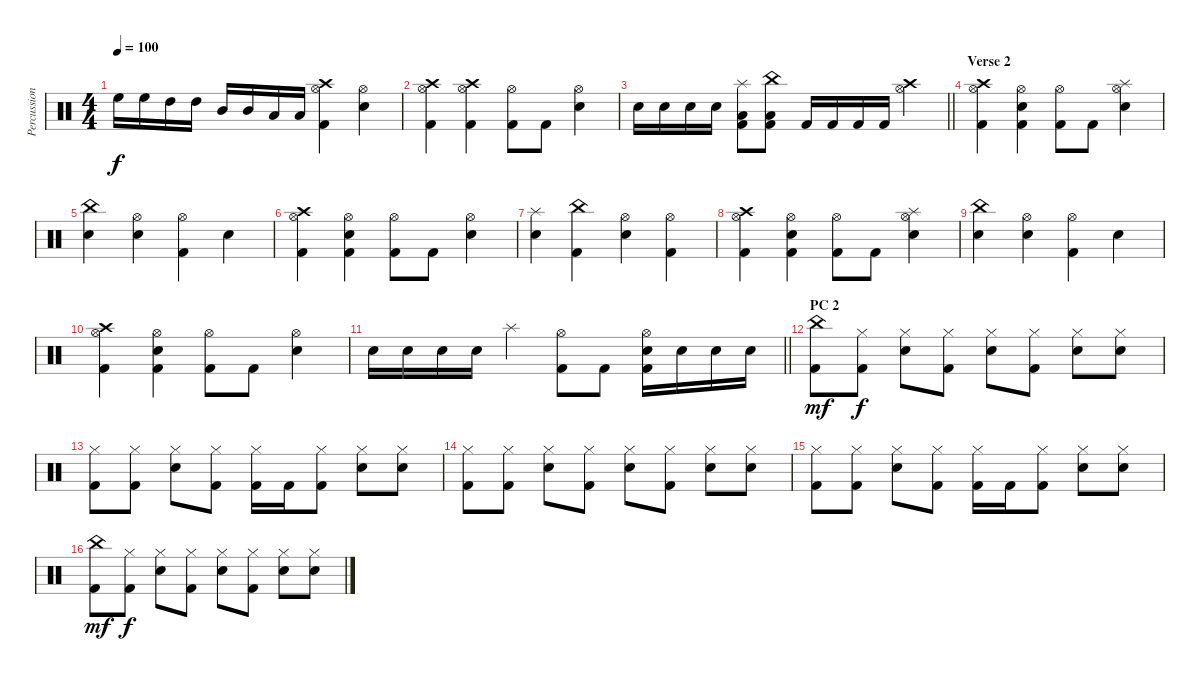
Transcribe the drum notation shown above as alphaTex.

\track ("Percussion" "Percussion") {instrument percussion}
\staff {score}
\articulation defaults
\ts (4 4)
\tempo 100
\clef neutral
\ks c "High Floor Tom (hit)".16{dy f} "High Floor Tom (hit)".16 "High Tom (hit)".16 "High Tom (hit)".16 "Mid Tom (hit)".16 "Mid Tom (hit)".16 "Low Tom (hit)".16 "Low Tom (hit)".16
("Crash high (hit)" "Hi-Hat (open)" "Kick (hit) 2").4 ("Hi-Hat (open)" "Snare (hit) 2").4 |
("Crash high (hit)" "Hi-Hat (open)" "Kick (hit) 2").4 ("Crash high (hit)" "Hi-Hat (open)" "Kick (hit) 2").4 ("Hi-Hat (open)" "Kick (hit) 2").8 "Kick (hit) 2".8 ("Hi-Hat (open)" "Snare (hit) 2").4 |
\barLineRight lightlight "Snare (hit) 2".16 "Snare (hit) 2".16 "Snare (hit) 2".16 "Snare (hit) 2".16
("Splash (hit)" "Low Floor Tom (hit)" "Kick (hit) 2").8 ("China (hit)" "Low Floor Tom (hit)" "Kick (hit) 2").8 "Kick (hit) 2".16 "Kick (hit) 2".16 "Kick (hit) 2".16 "Kick (hit) 2".16 ("Crash high (hit)" "Hi-Hat (open)").4 |
\section ("" "Verse 2")
("Crash high (hit)" "Hi-Hat (open)" "Kick (hit) 2").4 ("Hi-Hat (open)" "Snare (hit) 2" "Kick (hit) 2").4 ("Hi-Hat (open)" "Kick (hit) 2").8 "Kick (hit) 2".8 ("Splash (hit)" "Hi-Hat (open)" "Snare (hit) 2").4 |
("China (hit)" "Snare (hit) 2").4 ("Hi-Hat (open)" "Snare (hit) 2").4 ("Hi-Hat (open)" "Kick (hit) 2").4 "Snare (hit) 2".4 |
("Crash high (hit)" "Hi-Hat (open)" "Kick (hit) 2").4 ("Hi-Hat (open)" "Snare (hit) 2" "Kick (hit) 2").4 ("Hi-Hat (open)" "Kick (hit) 2").8 "Kick (hit) 2".8 ("Hi-Hat (open)" "Snare (hit) 2").4 |
("Splash (hit)" "Snare (hit) 2").4 ("China (hit)" "Kick (hit) 2").4 ("Hi-Hat (open)" "Snare (hit) 2").4 ("Hi-Hat (open)" "Kick (hit) 2").4 |
("Crash high (hit)" "Hi-Hat (open)" "Kick (hit) 2").4 ("Hi-Hat (open)" "Snare (hit) 2" "Kick (hit) 2").4 ("Hi-Hat (open)" "Kick (hit) 2").8 "Kick (hit) 2".8 ("Splash (hit)" "Hi-Hat (open)" "Snare (hit) 2").4 |
("China (hit)" "Snare (hit) 2").4 ("Hi-Hat (open)" "Snare (hit) 2").4 ("Hi-Hat (open)" "Kick (hit) 2").4 "Snare (hit) 2".4 |
("Crash high (hit)" "Hi-Hat (open)" "Kick (hit) 2").4 ("Hi-Hat (open)" "Snare (hit) 2" "Kick (hit) 2").4 ("Hi-Hat (open)" "Kick (hit) 2").8 "Kick (hit) 2".8 ("Hi-Hat (open)" "Snare (hit) 2").4 |
\barLineRight lightlight "Snare (hit) 2".16 "Snare (hit) 2".16 "Snare (hit) 2".16 "Snare (hit) 2".16 "Splash (hit)".4
("Hi-Hat (open)" "Kick (hit) 2").8 "Kick (hit) 2".8 ("Hi-Hat (open)" "Snare (hit) 2" "Kick (hit) 2").16 "Snare (hit) 2".16 "Snare (hit) 2".16 "Snare (hit) 2".16 |
\section ("" "PC 2")
("China (hit)" "Kick (hit) 2").8{dy mf} ("Hi-Hat (closed)" "Kick (hit) 2").8{dy f} ("Hi-Hat (closed)" "Snare (hit) 2").8 ("Hi-Hat (closed)" "Kick (hit) 2").8 ("Hi-Hat (closed)" "Snare (hit) 2").8 ("Hi-Hat (closed)" "Kick (hit) 2").8 ("Hi-Hat (closed)" "Snare (hit) 2").8 ("Hi-Hat (closed)" "Snare (hit) 2").8 |
("Hi-Hat (closed)" "Kick (hit) 2").8 ("Hi-Hat (closed)" "Kick (hit) 2").8 ("Hi-Hat (closed)" "Snare (hit) 2").8 ("Hi-Hat (closed)" "Kick (hit) 2").8 ("Hi-Hat (closed)" "Kick (hit) 2").16 "Kick (hit) 2".16 ("Hi-Hat (closed)" "Kick (hit) 2").8 ("Hi-Hat (closed)" "Snare (hit) 2").8 ("Hi-Hat (closed)" "Snare (hit) 2").8 |
("Hi-Hat (closed)" "Kick (hit) 2").8 ("Hi-Hat (closed)" "Kick (hit) 2").8 ("Hi-Hat (closed)" "Snare (hit) 2").8 ("Hi-Hat (closed)" "Kick (hit) 2").8 ("Hi-Hat (closed)" "Snare (hit) 2").8 ("Hi-Hat (closed)" "Kick (hit) 2").8 ("Hi-Hat (closed)" "Snare (hit) 2").8 ("Hi-Hat (closed)" "Snare (hit) 2").8 |
("Hi-Hat (closed)" "Kick (hit) 2").8 ("Hi-Hat (closed)" "Kick (hit) 2").8 ("Hi-Hat (closed)" "Snare (hit) 2").8 ("Hi-Hat (closed)" "Kick (hit) 2").8 ("Hi-Hat (closed)" "Kick (hit) 2").16 "Kick (hit) 2".16 ("Hi-Hat (closed)" "Kick (hit) 2").8 ("Hi-Hat (closed)" "Snare (hit) 2").8 ("Hi-Hat (closed)" "Snare (hit) 2").8 |
("China (hit)" "Kick (hit) 2").8{dy mf} ("Hi-Hat (closed)" "Kick (hit) 2").8{dy f} ("Hi-Hat (closed)" "Snare (hit) 2").8 ("Hi-Hat (closed)" "Kick (hit) 2").8 ("Hi-Hat (closed)" "Snare (hit) 2").8 ("Hi-Hat (closed)" "Kick (hit) 2").8 ("Hi-Hat (closed)" "Snare (hit) 2").8 ("Hi-Hat (closed)" "Snare (hit) 2").8
